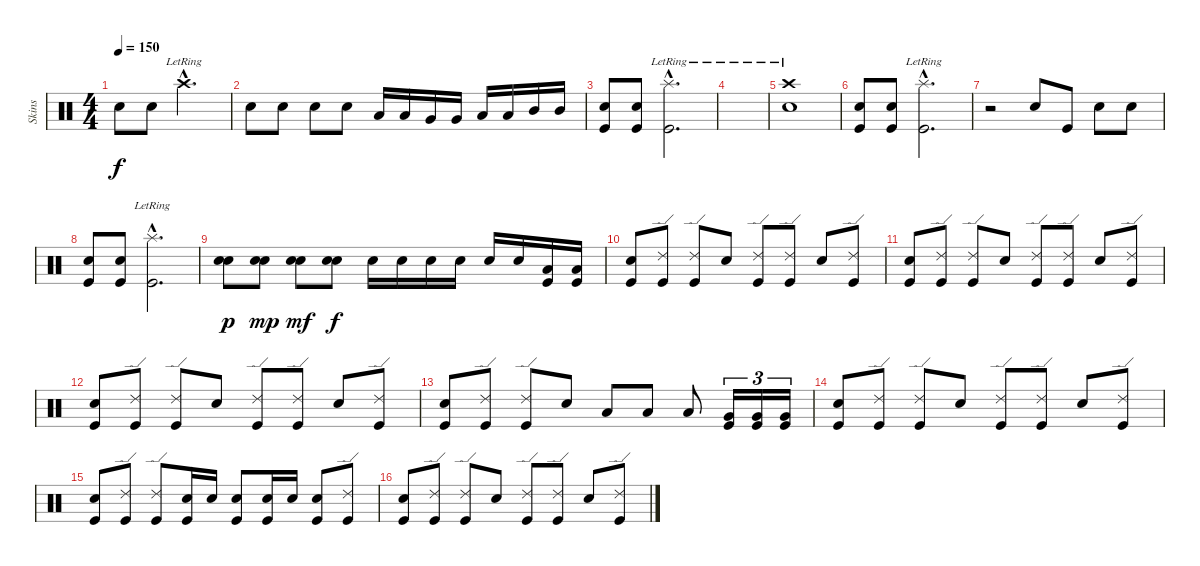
\track ("Skins" "Skins") {instrument percussion}
\staff {score}
\articulation defaults
\ts (4 4)
\tempo 150
\clef neutral
\ks c "Snare (hit) 2".8{dy f} "Snare (hit) 2".8 "Crash high (hit)"{hac lr}.2{d}
|
"Electric Snare (hit)".8 "Electric Snare (hit)".8 "Electric Snare (hit)".8 "Electric Snare (hit)".8 "Low Floor Tom (hit)".16{volume 6} "Low Floor Tom (hit)".16{volume 7} "Very Low Tom (hit)".16{volume 8} "Very Low Tom (hit)".16{volume 9} "Low Tom (hit)".16{volume 10} "Low Tom (hit)".16 "Mid Tom (hit)".16 "Mid Tom (hit)".16 |
("Electric Snare (hit)" "Kick (hit)").8 ("Electric Snare (hit)" "Kick (hit)").8 ("Splash (hit)"{hac lr} "Kick (hit)"{hac}).2{d} |
|
("Crash high (hit)"{lr} "Snare (hit) 2").1 |
("Electric Snare (hit)" "Kick (hit)").8 ("Electric Snare (hit)" "Kick (hit)").8 ("Splash (hit)"{hac lr} "Kick (hit)"{hac}).2{d} |
r.2 "Electric Snare (hit)".8 "Kick (hit)".8 "Electric Snare (hit)".8 "Electric Snare (hit)".8 |
("Electric Snare (hit)" "Kick (hit)").8 ("Electric Snare (hit)" "Kick (hit)").8 ("Splash (hit)"{hac lr} "Kick (hit)"{hac}).2{d} |
("Snare (hit) 2" "Electric Snare (hit)").8{dy p} ("Snare (hit) 2" "Electric Snare (hit)").8{dy mp} ("Snare (hit) 2" "Electric Snare (hit)").8{dy mf} ("Snare (hit) 2" "Electric Snare (hit)").8{dy f} "Snare (hit) 2".16 "Electric Snare (hit)".16 "Snare (hit) 2".16 "Electric Snare (hit)".16 "Snare (hit) 2".16 "Electric Snare (hit)".16 ("Low Floor Tom (hit)" "Kick (hit)").16 ("Low Floor Tom (hit)" "Kick (hit)").16 |
("Electric Snare (hit)" "Kick (hit)").8 ("Ride (edge) 2" "Kick (hit)").8 ("Ride (edge) 2" "Kick (hit)").8 "Electric Snare (hit)".8 ("Ride (edge) 2" "Kick (hit)").8 ("Ride (edge) 2" "Kick (hit)").8 "Electric Snare (hit)".8 ("Ride (edge) 2" "Kick (hit)").8 |
("Electric Snare (hit)" "Kick (hit)").8 ("Ride (edge) 2" "Kick (hit)").8 ("Ride (edge) 2" "Kick (hit)").8 "Electric Snare (hit)".8 ("Ride (edge) 2" "Kick (hit)").8 ("Ride (edge) 2" "Kick (hit)").8 "Electric Snare (hit)".8 ("Ride (edge) 2" "Kick (hit)").8 |
("Electric Snare (hit)" "Kick (hit)").8 ("Ride (edge) 2" "Kick (hit)").8 ("Ride (edge) 2" "Kick (hit)").8 "Electric Snare (hit)".8 ("Ride (edge) 2" "Kick (hit)").8 ("Ride (edge) 2" "Kick (hit)").8 "Electric Snare (hit)".8 ("Ride (edge) 2" "Kick (hit)").8 |
("Electric Snare (hit)" "Kick (hit)").8 ("Ride (edge) 2" "Kick (hit)").8 ("Ride (edge) 2" "Kick (hit)").8 "Electric Snare (hit)".8 "Low Floor Tom (hit)".8 "Low Floor Tom (hit)".8 "Low Floor Tom (hit)".8 ("Very Low Tom (hit)" "Kick (hit)").16{tu (3 2)} ("Very Low Tom (hit)" "Kick (hit)").16{tu (3 2)} ("Very Low Tom (hit)" "Kick (hit)").16{tu (3 2)} |
("Electric Snare (hit)" "Kick (hit)").8 ("Ride (edge) 2" "Kick (hit)").8 ("Ride (edge) 2" "Kick (hit)").8 "Electric Snare (hit)".8 ("Ride (edge) 2" "Kick (hit)").8 ("Ride (edge) 2" "Kick (hit)").8 "Electric Snare (hit)".8 ("Ride (edge) 2" "Kick (hit)").8 |
("Electric Snare (hit)" "Kick (hit)").8 ("Ride (edge) 2" "Kick (hit)").8 ("Ride (edge) 2" "Kick (hit)").8 ("Electric Snare (hit)" "Kick (hit)").16 "Electric Snare (hit)".16 ("Electric Snare (hit)" "Kick (hit)").8 ("Snare (hit) 2" "Kick (hit)").16 "Snare (hit) 2".16 ("Snare (hit) 2" "Kick (hit)").8 ("Ride (edge) 2" "Kick (hit)").8 |
("Electric Snare (hit)" "Kick (hit)").8 ("Ride (edge) 2" "Kick (hit)").8 ("Ride (edge) 2" "Kick (hit)").8 "Electric Snare (hit)".8 ("Ride (edge) 2" "Kick (hit)").8 ("Ride (edge) 2" "Kick (hit)").8 "Electric Snare (hit)".8 ("Ride (edge) 2" "Kick (hit)").8
